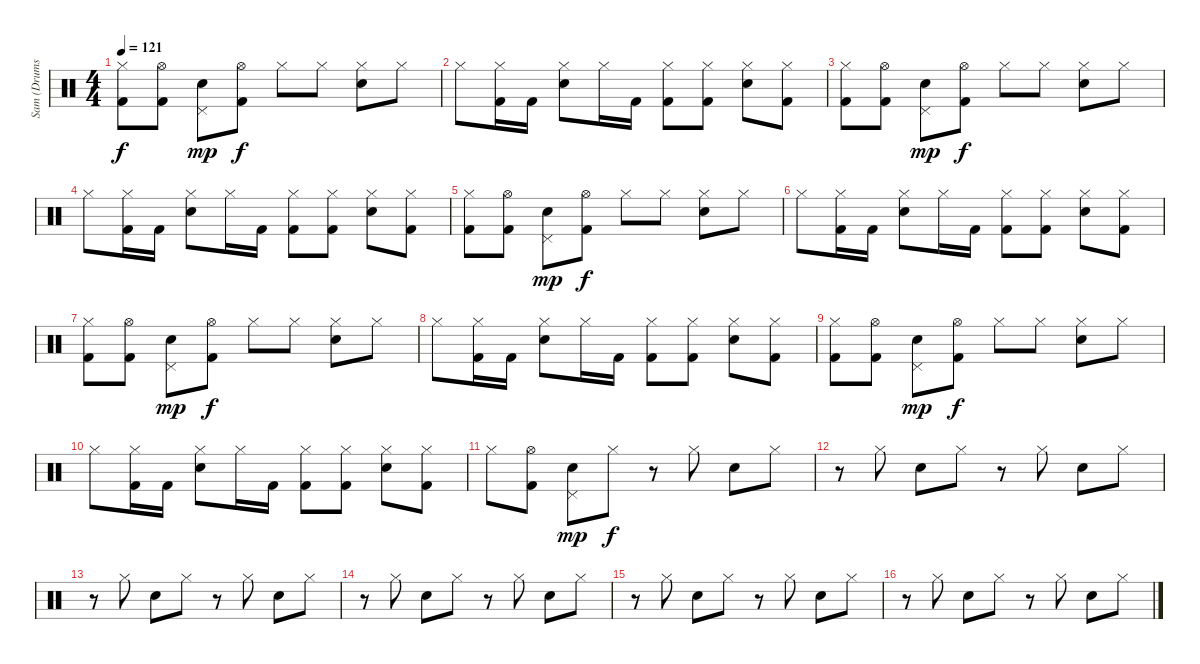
\track ("Sam (Drums)" "Sam (Drums") {instrument percussion}
\staff {score}
\articulation defaults
\ts (4 4)
\tempo 121
\clef neutral
\ks c
("Hi-Hat (closed)" "Kick (hit) 2").8{dy f} ("Hi-Hat (open)" "Kick (hit) 2").8 ("Pedal Hi-Hat (hit)" "Snare (hit) 2").8{dy mp} ("Hi-Hat (open)" "Kick (hit) 2").8{dy f} "Hi-Hat (closed)".8 "Hi-Hat (closed)".8 ("Hi-Hat (closed)" "Snare (hit) 2").8 "Hi-Hat (closed)".8 |
"Hi-Hat (closed)".8 ("Hi-Hat (closed)" "Kick (hit) 2").16 "Kick (hit) 2".16 ("Hi-Hat (closed)" "Snare (hit) 2").8 "Hi-Hat (closed)".16 "Kick (hit) 2".16 ("Hi-Hat (closed)" "Kick (hit) 2").8 ("Hi-Hat (closed)" "Kick (hit) 2").8 ("Hi-Hat (closed)" "Snare (hit) 2").8 ("Hi-Hat (closed)" "Kick (hit) 2").8 |
("Hi-Hat (closed)" "Kick (hit) 2").8 ("Hi-Hat (open)" "Kick (hit) 2").8 ("Pedal Hi-Hat (hit)" "Snare (hit) 2").8{dy mp} ("Hi-Hat (open)" "Kick (hit) 2").8{dy f} "Hi-Hat (closed)".8 "Hi-Hat (closed)".8 ("Hi-Hat (closed)" "Snare (hit) 2").8 "Hi-Hat (closed)".8 |
"Hi-Hat (closed)".8 ("Hi-Hat (closed)" "Kick (hit) 2").16 "Kick (hit) 2".16 ("Hi-Hat (closed)" "Snare (hit) 2").8 "Hi-Hat (closed)".16 "Kick (hit) 2".16 ("Hi-Hat (closed)" "Kick (hit) 2").8 ("Hi-Hat (closed)" "Kick (hit) 2").8 ("Hi-Hat (closed)" "Snare (hit) 2").8 ("Hi-Hat (closed)" "Kick (hit) 2").8 |
("Hi-Hat (closed)" "Kick (hit) 2").8 ("Hi-Hat (open)" "Kick (hit) 2").8 ("Pedal Hi-Hat (hit)" "Snare (hit) 2").8{dy mp} ("Hi-Hat (open)" "Kick (hit) 2").8{dy f} "Hi-Hat (closed)".8 "Hi-Hat (closed)".8 ("Hi-Hat (closed)" "Snare (hit) 2").8 "Hi-Hat (closed)".8 |
"Hi-Hat (closed)".8 ("Hi-Hat (closed)" "Kick (hit) 2").16 "Kick (hit) 2".16 ("Hi-Hat (closed)" "Snare (hit) 2").8 "Hi-Hat (closed)".16 "Kick (hit) 2".16 ("Hi-Hat (closed)" "Kick (hit) 2").8 ("Hi-Hat (closed)" "Kick (hit) 2").8 ("Hi-Hat (closed)" "Snare (hit) 2").8 ("Hi-Hat (closed)" "Kick (hit) 2").8 |
("Hi-Hat (closed)" "Kick (hit) 2").8 ("Hi-Hat (open)" "Kick (hit) 2").8 ("Pedal Hi-Hat (hit)" "Snare (hit) 2").8{dy mp} ("Hi-Hat (open)" "Kick (hit) 2").8{dy f} "Hi-Hat (closed)".8 "Hi-Hat (closed)".8 ("Hi-Hat (closed)" "Snare (hit) 2").8 "Hi-Hat (closed)".8 |
"Hi-Hat (closed)".8 ("Hi-Hat (closed)" "Kick (hit) 2").16 "Kick (hit) 2".16 ("Hi-Hat (closed)" "Snare (hit) 2").8 "Hi-Hat (closed)".16 "Kick (hit) 2".16 ("Hi-Hat (closed)" "Kick (hit) 2").8 ("Hi-Hat (closed)" "Kick (hit) 2").8 ("Hi-Hat (closed)" "Snare (hit) 2").8 ("Hi-Hat (closed)" "Kick (hit) 2").8 |
("Hi-Hat (closed)" "Kick (hit) 2").8 ("Hi-Hat (open)" "Kick (hit) 2").8 ("Pedal Hi-Hat (hit)" "Snare (hit) 2").8{dy mp} ("Hi-Hat (open)" "Kick (hit) 2").8{dy f} "Hi-Hat (closed)".8 "Hi-Hat (closed)".8 ("Hi-Hat (closed)" "Snare (hit) 2").8 "Hi-Hat (closed)".8 |
"Hi-Hat (closed)".8 ("Hi-Hat (closed)" "Kick (hit) 2").16 "Kick (hit) 2".16 ("Hi-Hat (closed)" "Snare (hit) 2").8 "Hi-Hat (closed)".16 "Kick (hit) 2".16 ("Hi-Hat (closed)" "Kick (hit) 2").8 ("Hi-Hat (closed)" "Kick (hit) 2").8 ("Hi-Hat (closed)" "Snare (hit) 2").8 ("Hi-Hat (closed)" "Kick (hit) 2").8 |
"Hi-Hat (closed)".8 ("Hi-Hat (open)" "Kick (hit) 2").8 ("Pedal Hi-Hat (hit)" "Snare (hit) 2").8{dy mp} "Hi-Hat (closed)".8{dy f} r.8 "Hi-Hat (closed)".8 "Snare (hit) 2".8 "Hi-Hat (closed)".8 |
r.8 "Hi-Hat (closed)".8 "Snare (hit) 2".8 "Hi-Hat (closed)".8 r.8 "Hi-Hat (closed)".8 "Snare (hit) 2".8 "Hi-Hat (closed)".8 |
r.8 "Hi-Hat (closed)".8 "Snare (hit) 2".8 "Hi-Hat (closed)".8 r.8 "Hi-Hat (closed)".8 "Snare (hit) 2".8 "Hi-Hat (closed)".8 |
r.8 "Hi-Hat (closed)".8 "Snare (hit) 2".8 "Hi-Hat (closed)".8 r.8 "Hi-Hat (closed)".8 "Snare (hit) 2".8 "Hi-Hat (closed)".8 |
r.8 "Hi-Hat (closed)".8 "Snare (hit) 2".8 "Hi-Hat (closed)".8 r.8 "Hi-Hat (closed)".8 "Snare (hit) 2".8 "Hi-Hat (closed)".8 |
r.8 "Hi-Hat (closed)".8 "Snare (hit) 2".8 "Hi-Hat (closed)".8 r.8 "Hi-Hat (closed)".8 "Snare (hit) 2".8 "Hi-Hat (closed)".8
